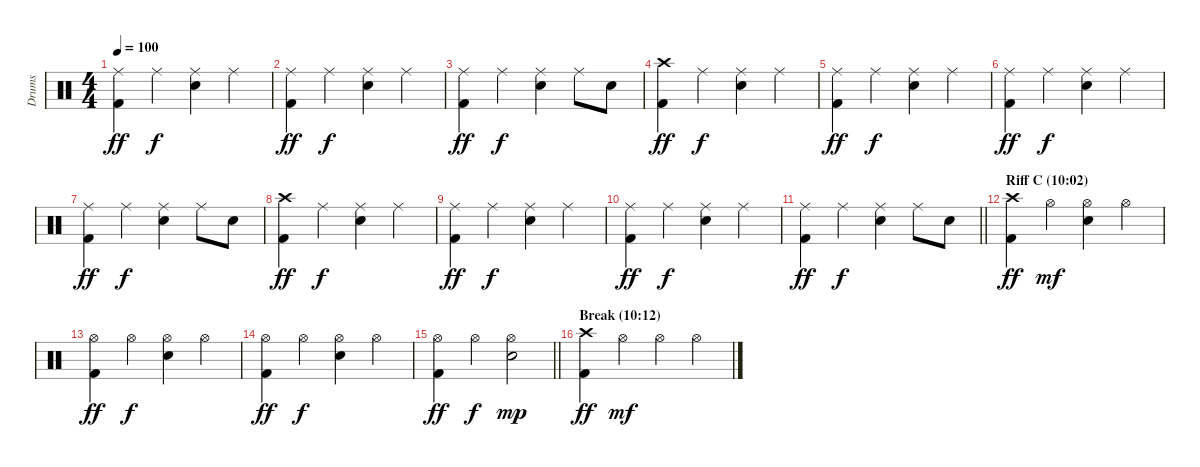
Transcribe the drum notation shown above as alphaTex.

\track ("Drums" "Drums") {instrument percussion}
\staff {score}
\articulation defaults
\ts (4 4)
\tempo 100
\clef neutral
\ks c
("Ride (middle)" "Kick (hit) 2").4{dy ff} "Ride (middle)".4{dy f} ("Ride (middle)" "Electric Snare (hit)").4 "Ride (middle)".4 |
("Ride (middle)" "Kick (hit) 2").4{dy ff} "Ride (middle)".4{dy f} ("Ride (middle)" "Electric Snare (hit)").4 "Ride (middle)".4 |
("Ride (middle)" "Kick (hit) 2").4{dy ff} "Ride (middle)".4{dy f} ("Ride (middle)" "Electric Snare (hit)").4 "Ride (middle)".8 "Electric Snare (hit)".8 |
("Crash high (hit)" "Kick (hit) 2").4{dy ff} "Ride (middle)".4{dy f} ("Ride (middle)" "Electric Snare (hit)").4 "Ride (middle)".4 |
("Ride (middle)" "Kick (hit) 2").4{dy ff} "Ride (middle)".4{dy f} ("Ride (middle)" "Electric Snare (hit)").4 "Ride (middle)".4 |
("Ride (middle)" "Kick (hit) 2").4{dy ff} "Ride (middle)".4{dy f} ("Ride (middle)" "Electric Snare (hit)").4 "Ride (middle)".4 |
("Ride (middle)" "Kick (hit) 2").4{dy ff} "Ride (middle)".4{dy f} ("Ride (middle)" "Electric Snare (hit)").4 "Ride (middle)".8 "Electric Snare (hit)".8 |
("Crash high (hit)" "Kick (hit) 2").4{dy ff} "Ride (middle)".4{dy f} ("Ride (middle)" "Electric Snare (hit)").4 "Ride (middle)".4 |
("Ride (middle)" "Kick (hit) 2").4{dy ff} "Ride (middle)".4{dy f} ("Ride (middle)" "Electric Snare (hit)").4 "Ride (middle)".4 |
("Ride (middle)" "Kick (hit) 2").4{dy ff} "Ride (middle)".4{dy f} ("Ride (middle)" "Electric Snare (hit)").4 "Ride (middle)".4 |
\barLineRight lightlight
("Ride (middle)" "Kick (hit) 2").4{dy ff} "Ride (middle)".4{dy f} ("Ride (middle)" "Electric Snare (hit)").4 "Ride (middle)".8 "Electric Snare (hit)".8 |
\section ("" "Riff C (10:02)")
("Crash high (hit)" "Kick (hit) 2").4{dy ff} "Hi-Hat (open)".4{dy mf} ("Hi-Hat (open)" "Electric Snare (hit)").4 "Hi-Hat (open)".4 |
("Hi-Hat (open)" "Kick (hit) 2").4{dy ff} "Hi-Hat (open)".4{dy f} ("Hi-Hat (open)" "Electric Snare (hit)").4 "Hi-Hat (open)".4 |
("Hi-Hat (open)" "Kick (hit) 2").4{dy ff} "Hi-Hat (open)".4{dy f} ("Hi-Hat (open)" "Electric Snare (hit)").4 "Hi-Hat (open)".4 |
\barLineRight lightlight
("Hi-Hat (open)" "Kick (hit) 2").4{dy ff} "Hi-Hat (open)".4{dy f} ("Hi-Hat (open)" "Electric Snare (hit)").2{dy mp} |
\section ("" "Break (10:12)")
("Crash high (hit)" "Kick (hit) 2").4{dy ff} "Hi-Hat (open)".4{dy mf} "Hi-Hat (open)".4 "Hi-Hat (open)".4
